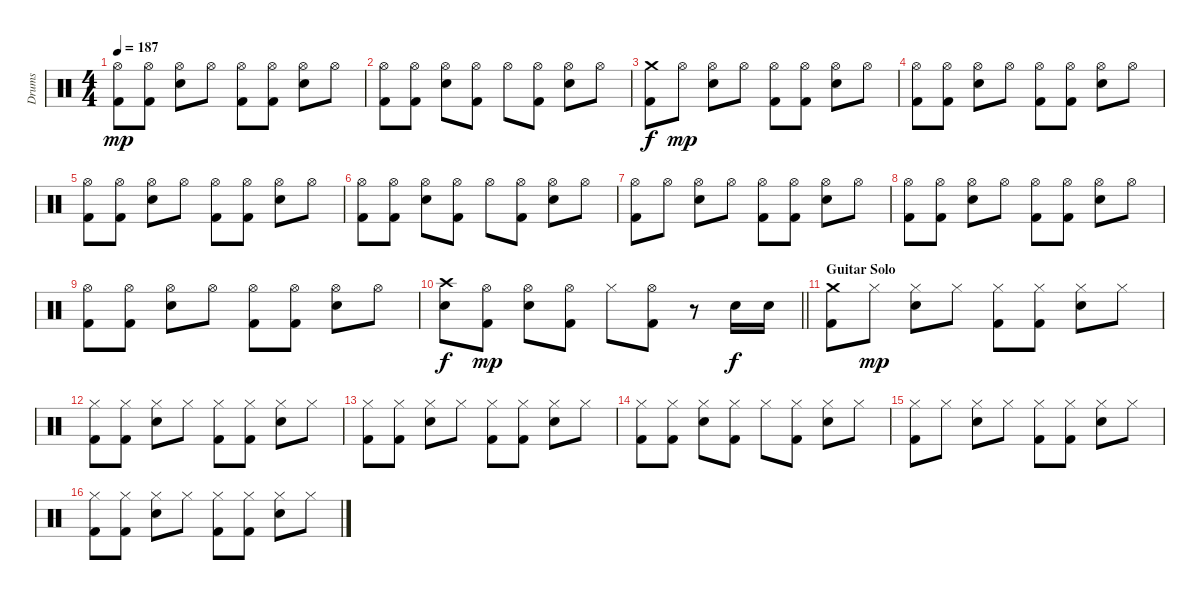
\track ("Drums" "Drums") {instrument percussion}
\staff {score}
\articulation defaults
\ts (4 4)
\tempo 187
\clef neutral
\ks c
("Hi-Hat (open)" "Kick (hit) 2").8{dy mp} ("Hi-Hat (open)" "Kick (hit) 2").8 ("Hi-Hat (open)" "Snare (hit) 2").8 "Hi-Hat (open)".8 ("Hi-Hat (open)" "Kick (hit) 2").8 ("Hi-Hat (open)" "Kick (hit) 2").8 ("Hi-Hat (open)" "Snare (hit) 2").8 "Hi-Hat (open)".8 |
("Hi-Hat (open)" "Kick (hit) 2").8 ("Hi-Hat (open)" "Kick (hit) 2").8 ("Hi-Hat (open)" "Snare (hit) 2").8 ("Hi-Hat (open)" "Kick (hit) 2").8 "Hi-Hat (open)".8 ("Hi-Hat (open)" "Kick (hit) 2").8 ("Hi-Hat (open)" "Snare (hit) 2").8 "Hi-Hat (open)".8 |
("Crash medium (hit)" "Kick (hit) 2").8{dy f} "Hi-Hat (open)".8{dy mp} ("Hi-Hat (open)" "Snare (hit) 2").8 "Hi-Hat (open)".8 ("Hi-Hat (open)" "Kick (hit) 2").8 ("Hi-Hat (open)" "Kick (hit) 2").8 ("Hi-Hat (open)" "Snare (hit) 2").8 "Hi-Hat (open)".8 |
("Hi-Hat (open)" "Kick (hit) 2").8 ("Hi-Hat (open)" "Kick (hit) 2").8 ("Hi-Hat (open)" "Snare (hit) 2").8 "Hi-Hat (open)".8 ("Hi-Hat (open)" "Kick (hit) 2").8 ("Hi-Hat (open)" "Kick (hit) 2").8 ("Hi-Hat (open)" "Snare (hit) 2").8 "Hi-Hat (open)".8 |
("Hi-Hat (open)" "Kick (hit) 2").8 ("Hi-Hat (open)" "Kick (hit) 2").8 ("Hi-Hat (open)" "Snare (hit) 2").8 "Hi-Hat (open)".8 ("Hi-Hat (open)" "Kick (hit) 2").8 ("Hi-Hat (open)" "Kick (hit) 2").8 ("Hi-Hat (open)" "Snare (hit) 2").8 "Hi-Hat (open)".8 |
("Hi-Hat (open)" "Kick (hit) 2").8 ("Hi-Hat (open)" "Kick (hit) 2").8 ("Hi-Hat (open)" "Snare (hit) 2").8 ("Hi-Hat (open)" "Kick (hit) 2").8 "Hi-Hat (open)".8 ("Hi-Hat (open)" "Kick (hit) 2").8 ("Hi-Hat (open)" "Snare (hit) 2").8 "Hi-Hat (open)".8 |
("Hi-Hat (open)" "Kick (hit) 2").8 "Hi-Hat (open)".8 ("Hi-Hat (open)" "Snare (hit) 2").8 "Hi-Hat (open)".8 ("Hi-Hat (open)" "Kick (hit) 2").8 ("Hi-Hat (open)" "Kick (hit) 2").8 ("Hi-Hat (open)" "Snare (hit) 2").8 "Hi-Hat (open)".8 |
("Hi-Hat (open)" "Kick (hit) 2").8 ("Hi-Hat (open)" "Kick (hit) 2").8 ("Hi-Hat (open)" "Snare (hit) 2").8 "Hi-Hat (open)".8 ("Hi-Hat (open)" "Kick (hit) 2").8 ("Hi-Hat (open)" "Kick (hit) 2").8 ("Hi-Hat (open)" "Snare (hit) 2").8 "Hi-Hat (open)".8 |
("Hi-Hat (open)" "Kick (hit) 2").8 ("Hi-Hat (open)" "Kick (hit) 2").8 ("Hi-Hat (open)" "Snare (hit) 2").8 "Hi-Hat (open)".8 ("Hi-Hat (open)" "Kick (hit) 2").8 ("Hi-Hat (open)" "Kick (hit) 2").8 ("Hi-Hat (open)" "Snare (hit) 2").8 "Hi-Hat (open)".8 |
\barLineRight lightlight
("Crash high (hit)" "Snare (hit) 2").8{dy f} ("Hi-Hat (open)" "Kick (hit) 2").8{dy mp} ("Hi-Hat (open)" "Snare (hit) 2").8 ("Hi-Hat (open)" "Kick (hit) 2").8 "Hi-Hat (closed)".8 ("Hi-Hat (open)" "Kick (hit) 2").8 r.8 "Snare (hit) 2".16{dy f} "Snare (hit) 2".16 |
\section ("" "Guitar Solo")
("Crash medium (hit)" "Kick (hit) 2").8 "Hi-Hat (closed)".8{dy mp} ("Hi-Hat (closed)" "Snare (hit) 2").8 "Hi-Hat (closed)".8 ("Hi-Hat (closed)" "Kick (hit) 2").8 ("Hi-Hat (closed)" "Kick (hit) 2").8 ("Hi-Hat (closed)" "Snare (hit) 2").8 "Hi-Hat (closed)".8 |
("Hi-Hat (closed)" "Kick (hit) 2").8 ("Hi-Hat (closed)" "Kick (hit) 2").8 ("Hi-Hat (closed)" "Snare (hit) 2").8 "Hi-Hat (closed)".8 ("Hi-Hat (closed)" "Kick (hit) 2").8 ("Hi-Hat (closed)" "Kick (hit) 2").8 ("Hi-Hat (closed)" "Snare (hit) 2").8 "Hi-Hat (closed)".8 |
("Hi-Hat (closed)" "Kick (hit) 2").8 ("Hi-Hat (closed)" "Kick (hit) 2").8 ("Hi-Hat (closed)" "Snare (hit) 2").8 "Hi-Hat (closed)".8 ("Hi-Hat (closed)" "Kick (hit) 2").8 ("Hi-Hat (closed)" "Kick (hit) 2").8 ("Hi-Hat (closed)" "Snare (hit) 2").8 "Hi-Hat (closed)".8 |
("Hi-Hat (closed)" "Kick (hit) 2").8 ("Hi-Hat (closed)" "Kick (hit) 2").8 ("Hi-Hat (closed)" "Snare (hit) 2").8 ("Hi-Hat (closed)" "Kick (hit) 2").8 "Hi-Hat (closed)".8 ("Hi-Hat (closed)" "Kick (hit) 2").8 ("Hi-Hat (closed)" "Snare (hit) 2").8 "Hi-Hat (closed)".8 |
("Hi-Hat (closed)" "Kick (hit) 2").8 "Hi-Hat (closed)".8 ("Hi-Hat (closed)" "Snare (hit) 2").8 "Hi-Hat (closed)".8 ("Hi-Hat (closed)" "Kick (hit) 2").8 ("Hi-Hat (closed)" "Kick (hit) 2").8 ("Hi-Hat (closed)" "Snare (hit) 2").8 "Hi-Hat (closed)".8 |
("Hi-Hat (closed)" "Kick (hit) 2").8 ("Hi-Hat (closed)" "Kick (hit) 2").8 ("Hi-Hat (closed)" "Snare (hit) 2").8 "Hi-Hat (closed)".8 ("Hi-Hat (closed)" "Kick (hit) 2").8 ("Hi-Hat (closed)" "Kick (hit) 2").8 ("Hi-Hat (closed)" "Snare (hit) 2").8 "Hi-Hat (closed)".8
